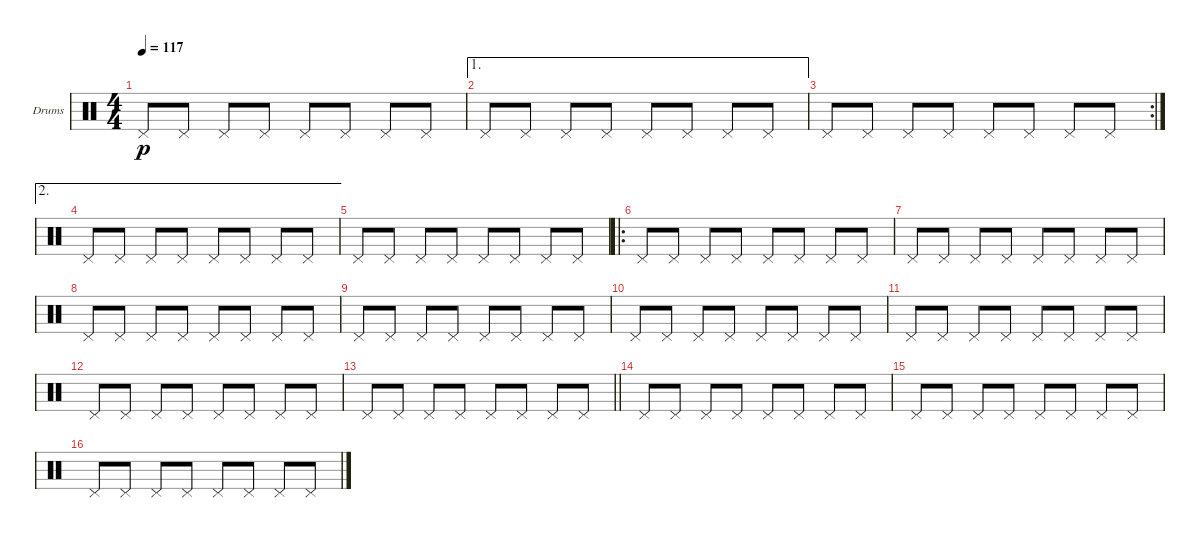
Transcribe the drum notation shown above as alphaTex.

\bracketExtendMode groupsimilarinstruments
\firstSystemTrackNameOrientation horizontal
\otherSystemsTrackNameOrientation horizontal
\track ("Dominic Hit hat pedal" "Drums") {instrument percussion}
\staff {score}
\articulation defaults
\ts (4 4)
\tempo 117
\clef neutral
\ks c "Pedal Hi-Hat (hit)".8{dy p} "Pedal Hi-Hat (hit)".8 "Pedal Hi-Hat (hit)".8 "Pedal Hi-Hat (hit)".8 "Pedal Hi-Hat (hit)".8 "Pedal Hi-Hat (hit)".8 "Pedal Hi-Hat (hit)".8 "Pedal Hi-Hat (hit)".8
|
\ae 1 "Pedal Hi-Hat (hit)".8 "Pedal Hi-Hat (hit)".8 "Pedal Hi-Hat (hit)".8 "Pedal Hi-Hat (hit)".8 "Pedal Hi-Hat (hit)".8 "Pedal Hi-Hat (hit)".8 "Pedal Hi-Hat (hit)".8 "Pedal Hi-Hat (hit)".8
|
\rc 2 "Pedal Hi-Hat (hit)".8 "Pedal Hi-Hat (hit)".8 "Pedal Hi-Hat (hit)".8 "Pedal Hi-Hat (hit)".8 "Pedal Hi-Hat (hit)".8 "Pedal Hi-Hat (hit)".8 "Pedal Hi-Hat (hit)".8 "Pedal Hi-Hat (hit)".8
|
\ae 2 "Pedal Hi-Hat (hit)".8 "Pedal Hi-Hat (hit)".8 "Pedal Hi-Hat (hit)".8 "Pedal Hi-Hat (hit)".8 "Pedal Hi-Hat (hit)".8 "Pedal Hi-Hat (hit)".8 "Pedal Hi-Hat (hit)".8 "Pedal Hi-Hat (hit)".8
|
"Pedal Hi-Hat (hit)".8 "Pedal Hi-Hat (hit)".8 "Pedal Hi-Hat (hit)".8 "Pedal Hi-Hat (hit)".8 "Pedal Hi-Hat (hit)".8 "Pedal Hi-Hat (hit)".8 "Pedal Hi-Hat (hit)".8 "Pedal Hi-Hat (hit)".8 |
\ro "Pedal Hi-Hat (hit)".8 "Pedal Hi-Hat (hit)".8 "Pedal Hi-Hat (hit)".8 "Pedal Hi-Hat (hit)".8 "Pedal Hi-Hat (hit)".8 "Pedal Hi-Hat (hit)".8 "Pedal Hi-Hat (hit)".8 "Pedal Hi-Hat (hit)".8
|
"Pedal Hi-Hat (hit)".8 "Pedal Hi-Hat (hit)".8 "Pedal Hi-Hat (hit)".8 "Pedal Hi-Hat (hit)".8 "Pedal Hi-Hat (hit)".8 "Pedal Hi-Hat (hit)".8 "Pedal Hi-Hat (hit)".8 "Pedal Hi-Hat (hit)".8 |
"Pedal Hi-Hat (hit)".8 "Pedal Hi-Hat (hit)".8 "Pedal Hi-Hat (hit)".8 "Pedal Hi-Hat (hit)".8 "Pedal Hi-Hat (hit)".8 "Pedal Hi-Hat (hit)".8 "Pedal Hi-Hat (hit)".8 "Pedal Hi-Hat (hit)".8 |
"Pedal Hi-Hat (hit)".8 "Pedal Hi-Hat (hit)".8 "Pedal Hi-Hat (hit)".8 "Pedal Hi-Hat (hit)".8 "Pedal Hi-Hat (hit)".8 "Pedal Hi-Hat (hit)".8 "Pedal Hi-Hat (hit)".8 "Pedal Hi-Hat (hit)".8 |
"Pedal Hi-Hat (hit)".8 "Pedal Hi-Hat (hit)".8 "Pedal Hi-Hat (hit)".8 "Pedal Hi-Hat (hit)".8 "Pedal Hi-Hat (hit)".8 "Pedal Hi-Hat (hit)".8 "Pedal Hi-Hat (hit)".8 "Pedal Hi-Hat (hit)".8 |
"Pedal Hi-Hat (hit)".8 "Pedal Hi-Hat (hit)".8 "Pedal Hi-Hat (hit)".8 "Pedal Hi-Hat (hit)".8 "Pedal Hi-Hat (hit)".8 "Pedal Hi-Hat (hit)".8 "Pedal Hi-Hat (hit)".8 "Pedal Hi-Hat (hit)".8 |
"Pedal Hi-Hat (hit)".8 "Pedal Hi-Hat (hit)".8 "Pedal Hi-Hat (hit)".8 "Pedal Hi-Hat (hit)".8 "Pedal Hi-Hat (hit)".8 "Pedal Hi-Hat (hit)".8 "Pedal Hi-Hat (hit)".8 "Pedal Hi-Hat (hit)".8 |
\barLineRight lightlight "Pedal Hi-Hat (hit)".8 "Pedal Hi-Hat (hit)".8 "Pedal Hi-Hat (hit)".8 "Pedal Hi-Hat (hit)".8 "Pedal Hi-Hat (hit)".8 "Pedal Hi-Hat (hit)".8 "Pedal Hi-Hat (hit)".8 "Pedal Hi-Hat (hit)".8
|
"Pedal Hi-Hat (hit)".8 "Pedal Hi-Hat (hit)".8 "Pedal Hi-Hat (hit)".8 "Pedal Hi-Hat (hit)".8 "Pedal Hi-Hat (hit)".8 "Pedal Hi-Hat (hit)".8 "Pedal Hi-Hat (hit)".8 "Pedal Hi-Hat (hit)".8 |
"Pedal Hi-Hat (hit)".8 "Pedal Hi-Hat (hit)".8 "Pedal Hi-Hat (hit)".8 "Pedal Hi-Hat (hit)".8 "Pedal Hi-Hat (hit)".8 "Pedal Hi-Hat (hit)".8 "Pedal Hi-Hat (hit)".8 "Pedal Hi-Hat (hit)".8 |
"Pedal Hi-Hat (hit)".8 "Pedal Hi-Hat (hit)".8 "Pedal Hi-Hat (hit)".8 "Pedal Hi-Hat (hit)".8 "Pedal Hi-Hat (hit)".8 "Pedal Hi-Hat (hit)".8 "Pedal Hi-Hat (hit)".8 "Pedal Hi-Hat (hit)".8
